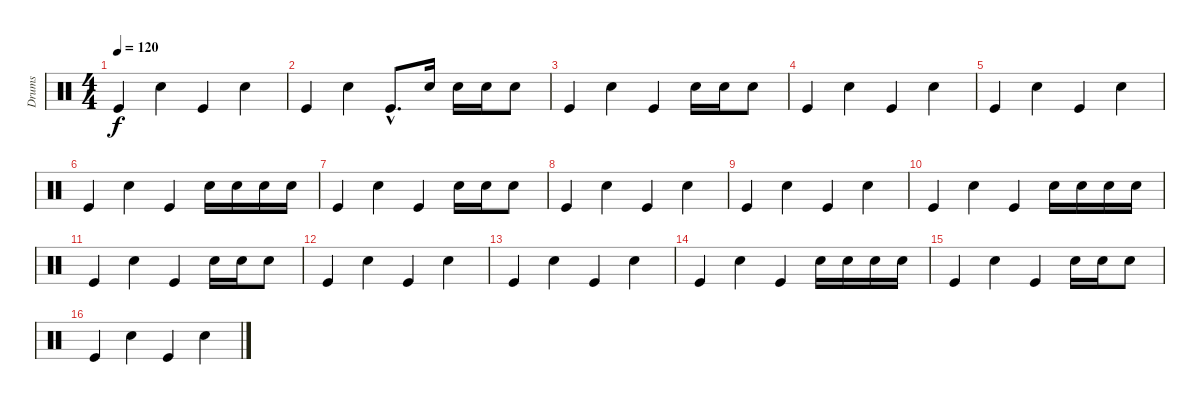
\track ("Drums" "Drums") {instrument percussion}
\staff {score}
\articulation defaults
\ts (4 4)
\tempo 120
\clef neutral
\ks c "Kick (hit)".4{dy f} "Snare (hit) 2".4 "Kick (hit)".4 "Snare (hit) 2".4
|
"Kick (hit)".4 "Snare (hit) 2".4 "Kick (hit)"{hac}.8{d} "Snare (hit) 2".16 "Snare (hit) 2".16 "Snare (hit) 2".16 "Snare (hit) 2".8 |
"Kick (hit)".4 "Snare (hit) 2".4 "Kick (hit)".4 "Snare (hit) 2".16 "Snare (hit) 2".16 "Snare (hit) 2".8 |
"Kick (hit)".4 "Snare (hit) 2".4 "Kick (hit)".4 "Snare (hit) 2".4 |
"Kick (hit)".4 "Snare (hit) 2".4 "Kick (hit)".4 "Snare (hit) 2".4 |
"Kick (hit)".4 "Snare (hit) 2".4 "Kick (hit)".4 "Snare (hit) 2".16 "Snare (hit) 2".16 "Snare (hit) 2".16 "Snare (hit) 2".16 |
"Kick (hit)".4 "Snare (hit) 2".4 "Kick (hit)".4 "Snare (hit) 2".16 "Snare (hit) 2".16 "Snare (hit) 2".8 |
"Kick (hit)".4 "Snare (hit) 2".4 "Kick (hit)".4 "Snare (hit) 2".4 |
"Kick (hit)".4 "Snare (hit) 2".4 "Kick (hit)".4 "Snare (hit) 2".4 |
"Kick (hit)".4 "Snare (hit) 2".4 "Kick (hit)".4 "Snare (hit) 2".16 "Snare (hit) 2".16 "Snare (hit) 2".16 "Snare (hit) 2".16 |
"Kick (hit)".4 "Snare (hit) 2".4 "Kick (hit)".4 "Snare (hit) 2".16 "Snare (hit) 2".16 "Snare (hit) 2".8 |
"Kick (hit)".4 "Snare (hit) 2".4 "Kick (hit)".4 "Snare (hit) 2".4 |
"Kick (hit)".4 "Snare (hit) 2".4 "Kick (hit)".4 "Snare (hit) 2".4 |
"Kick (hit)".4 "Snare (hit) 2".4 "Kick (hit)".4 "Snare (hit) 2".16 "Snare (hit) 2".16 "Snare (hit) 2".16 "Snare (hit) 2".16 |
"Kick (hit)".4 "Snare (hit) 2".4 "Kick (hit)".4 "Snare (hit) 2".16 "Snare (hit) 2".16 "Snare (hit) 2".8 |
"Kick (hit)".4 "Snare (hit) 2".4 "Kick (hit)".4 "Snare (hit) 2".4
